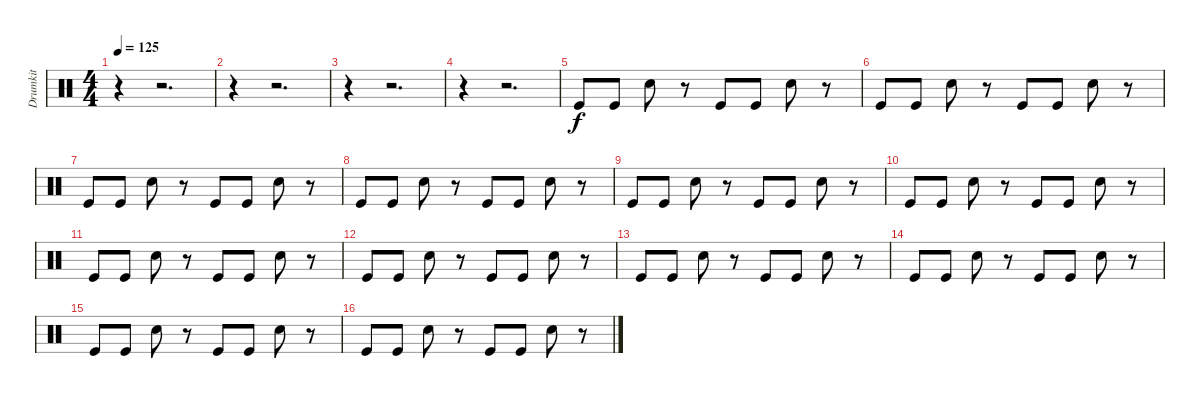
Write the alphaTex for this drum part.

\track ("Drumkit" "Drumkit") {instrument percussion}
\staff {score}
\articulation defaults
\ts (4 4)
\tempo 125
\clef neutral
\ks c
r.4{dy f} r.2{d} |
r.4 r.2{d} |
r.4 r.2{d} |
r.4 r.2{d} |
"Kick (hit)".8 "Kick (hit)".8 "Snare (hit) 2".8 r.8 "Kick (hit)".8 "Kick (hit)".8 "Snare (hit) 2".8 r.8 |
"Kick (hit)".8 "Kick (hit)".8 "Snare (hit) 2".8 r.8 "Kick (hit)".8 "Kick (hit)".8 "Snare (hit) 2".8 r.8 |
"Kick (hit)".8 "Kick (hit)".8 "Snare (hit) 2".8 r.8 "Kick (hit)".8 "Kick (hit)".8 "Snare (hit) 2".8 r.8 |
"Kick (hit)".8 "Kick (hit)".8 "Snare (hit) 2".8 r.8 "Kick (hit)".8 "Kick (hit)".8 "Snare (hit) 2".8 r.8 |
"Kick (hit)".8 "Kick (hit)".8 "Snare (hit) 2".8 r.8 "Kick (hit)".8 "Kick (hit)".8 "Snare (hit) 2".8 r.8 |
"Kick (hit)".8 "Kick (hit)".8 "Snare (hit) 2".8 r.8 "Kick (hit)".8 "Kick (hit)".8 "Snare (hit) 2".8 r.8 |
"Kick (hit)".8 "Kick (hit)".8 "Snare (hit) 2".8 r.8 "Kick (hit)".8 "Kick (hit)".8 "Snare (hit) 2".8 r.8 |
"Kick (hit)".8 "Kick (hit)".8 "Snare (hit) 2".8 r.8 "Kick (hit)".8 "Kick (hit)".8 "Snare (hit) 2".8 r.8 |
"Kick (hit)".8 "Kick (hit)".8 "Snare (hit) 2".8 r.8 "Kick (hit)".8 "Kick (hit)".8 "Snare (hit) 2".8 r.8 |
"Kick (hit)".8 "Kick (hit)".8 "Snare (hit) 2".8 r.8 "Kick (hit)".8 "Kick (hit)".8 "Snare (hit) 2".8 r.8 |
"Kick (hit)".8 "Kick (hit)".8 "Snare (hit) 2".8 r.8 "Kick (hit)".8 "Kick (hit)".8 "Snare (hit) 2".8 r.8 |
"Kick (hit)".8 "Kick (hit)".8 "Snare (hit) 2".8 r.8 "Kick (hit)".8 "Kick (hit)".8 "Snare (hit) 2".8 r.8
